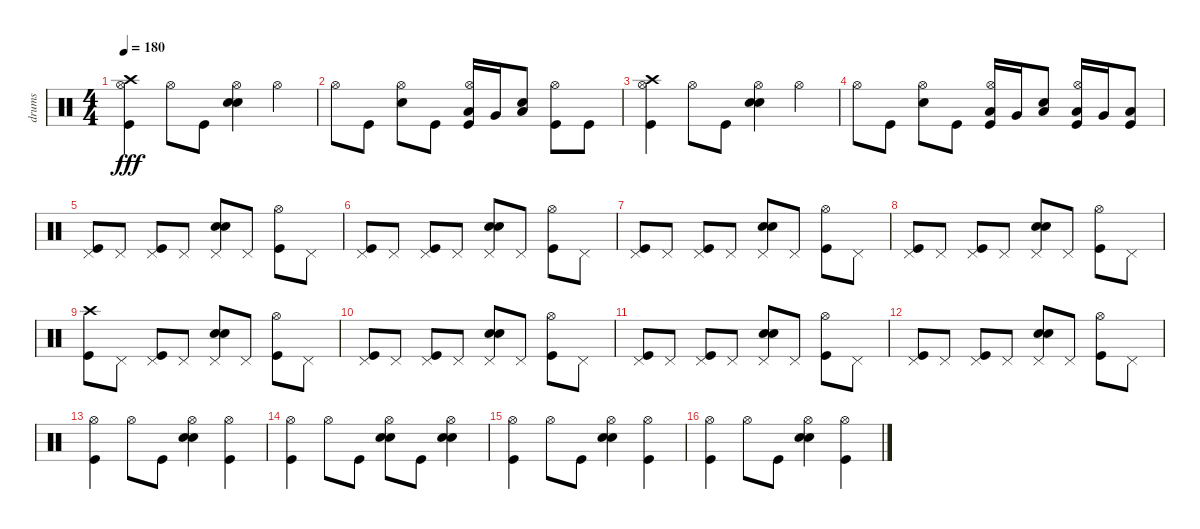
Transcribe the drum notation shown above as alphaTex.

\track ("drums" "drums") {instrument percussion}
\staff {score}
\articulation defaults
\ts (4 4)
\tempo 180
\clef neutral
\ks c
("Kick (hit)" "Hi-Hat (open)" "Crash high (hit)").4{dy fff} "Hi-Hat (open)".8 "Kick (hit)".8 ("Snare (hit) 2" "Electric Snare (hit)" "Hi-Hat (open)").4 "Hi-Hat (open)".4 |
"Hi-Hat (open)".8 "Kick (hit)".8 ("Snare (hit) 2" "Hi-Hat (open)").8 "Kick (hit)".8 ("Kick (hit)" "Hi-Hat (open)" "Low Tom (hit)").16 "Very Low Tom (hit)".16 ("Snare (hit) 2" "Low Floor Tom (hit)").8 ("Kick (hit)" "Hi-Hat (open)").8 "Kick (hit)".8 |
("Crash high (hit)" "Hi-Hat (open)" "Kick (hit)").4 "Hi-Hat (open)".8 "Kick (hit)".8 ("Snare (hit) 2" "Electric Snare (hit)" "Hi-Hat (open)").4 "Hi-Hat (open)".4 |
"Hi-Hat (open)".8 "Kick (hit)".8 ("Snare (hit) 2" "Hi-Hat (open)").8 "Kick (hit)".8 ("Kick (hit)" "Hi-Hat (open)" "Low Tom (hit)").16 "Very Low Tom (hit)".16 ("Snare (hit) 2" "Low Floor Tom (hit)").8 ("Kick (hit)" "Hi-Hat (open)" "Low Floor Tom (hit)").16 "Very Low Tom (hit)".16 ("Kick (hit)" "Low Floor Tom (hit)").8 |
("Pedal Hi-Hat (hit)" "Kick (hit)").8 "Pedal Hi-Hat (hit)".8 ("Pedal Hi-Hat (hit)" "Kick (hit)").8 "Pedal Hi-Hat (hit)".8 ("Pedal Hi-Hat (hit)" "Electric Snare (hit)" "Snare (hit) 2").8 "Pedal Hi-Hat (hit)".8 ("Hi-Hat (open)" "Kick (hit)").8 "Pedal Hi-Hat (hit)".8 |
("Kick (hit)" "Pedal Hi-Hat (hit)").8 "Pedal Hi-Hat (hit)".8 ("Kick (hit)" "Pedal Hi-Hat (hit)").8 "Pedal Hi-Hat (hit)".8 ("Snare (hit) 2" "Electric Snare (hit)" "Pedal Hi-Hat (hit)").8 "Pedal Hi-Hat (hit)".8 ("Hi-Hat (open)" "Kick (hit)").8 "Pedal Hi-Hat (hit)".8 |
("Pedal Hi-Hat (hit)" "Kick (hit)").8 "Pedal Hi-Hat (hit)".8 ("Pedal Hi-Hat (hit)" "Kick (hit)").8 "Pedal Hi-Hat (hit)".8 ("Pedal Hi-Hat (hit)" "Electric Snare (hit)" "Snare (hit) 2").8 "Pedal Hi-Hat (hit)".8 ("Hi-Hat (open)" "Kick (hit)").8 "Pedal Hi-Hat (hit)".8 |
("Kick (hit)" "Pedal Hi-Hat (hit)").8 "Pedal Hi-Hat (hit)".8 ("Kick (hit)" "Pedal Hi-Hat (hit)").8 "Pedal Hi-Hat (hit)".8 ("Snare (hit) 2" "Electric Snare (hit)" "Pedal Hi-Hat (hit)").8 "Pedal Hi-Hat (hit)".8 ("Hi-Hat (open)" "Kick (hit)").8 "Pedal Hi-Hat (hit)".8 |
("Kick (hit)" "Crash high (hit)").8 "Pedal Hi-Hat (hit)".8 ("Pedal Hi-Hat (hit)" "Kick (hit)").8 "Pedal Hi-Hat (hit)".8 ("Pedal Hi-Hat (hit)" "Electric Snare (hit)" "Snare (hit) 2").8 "Pedal Hi-Hat (hit)".8 ("Hi-Hat (open)" "Kick (hit)").8 "Pedal Hi-Hat (hit)".8 |
("Kick (hit)" "Pedal Hi-Hat (hit)").8 "Pedal Hi-Hat (hit)".8 ("Kick (hit)" "Pedal Hi-Hat (hit)").8 "Pedal Hi-Hat (hit)".8 ("Snare (hit) 2" "Electric Snare (hit)" "Pedal Hi-Hat (hit)").8 "Pedal Hi-Hat (hit)".8 ("Hi-Hat (open)" "Kick (hit)").8 "Pedal Hi-Hat (hit)".8 |
("Pedal Hi-Hat (hit)" "Kick (hit)").8 "Pedal Hi-Hat (hit)".8 ("Pedal Hi-Hat (hit)" "Kick (hit)").8 "Pedal Hi-Hat (hit)".8 ("Pedal Hi-Hat (hit)" "Electric Snare (hit)" "Snare (hit) 2").8 "Pedal Hi-Hat (hit)".8 ("Hi-Hat (open)" "Kick (hit)").8 "Pedal Hi-Hat (hit)".8 |
("Kick (hit)" "Pedal Hi-Hat (hit)").8 "Pedal Hi-Hat (hit)".8 ("Kick (hit)" "Pedal Hi-Hat (hit)").8 "Pedal Hi-Hat (hit)".8 ("Snare (hit) 2" "Electric Snare (hit)" "Pedal Hi-Hat (hit)").8 "Pedal Hi-Hat (hit)".8 ("Hi-Hat (open)" "Kick (hit)").8 "Pedal Hi-Hat (hit)".8 |
("Kick (hit)" "Hi-Hat (open)").4 "Hi-Hat (open)".8 "Kick (hit)".8 ("Snare (hit) 2" "Electric Snare (hit)" "Hi-Hat (open)").4 ("Hi-Hat (open)" "Kick (hit)").4 |
("Hi-Hat (open)" "Kick (hit)").4 "Hi-Hat (open)".8 "Kick (hit)".8 ("Hi-Hat (open)" "Snare (hit) 2" "Electric Snare (hit)").8 "Kick (hit)".8 ("Hi-Hat (open)" "Electric Snare (hit)" "Snare (hit) 2").4 |
("Hi-Hat (open)" "Kick (hit)").4 "Hi-Hat (open)".8 "Kick (hit)".8 ("Hi-Hat (open)" "Snare (hit) 2" "Electric Snare (hit)").4 ("Hi-Hat (open)" "Kick (hit)").4 |
("Hi-Hat (open)" "Kick (hit)").4 "Hi-Hat (open)".8 "Kick (hit)".8 ("Hi-Hat (open)" "Snare (hit) 2" "Electric Snare (hit)").4 ("Hi-Hat (open)" "Kick (hit)").4
